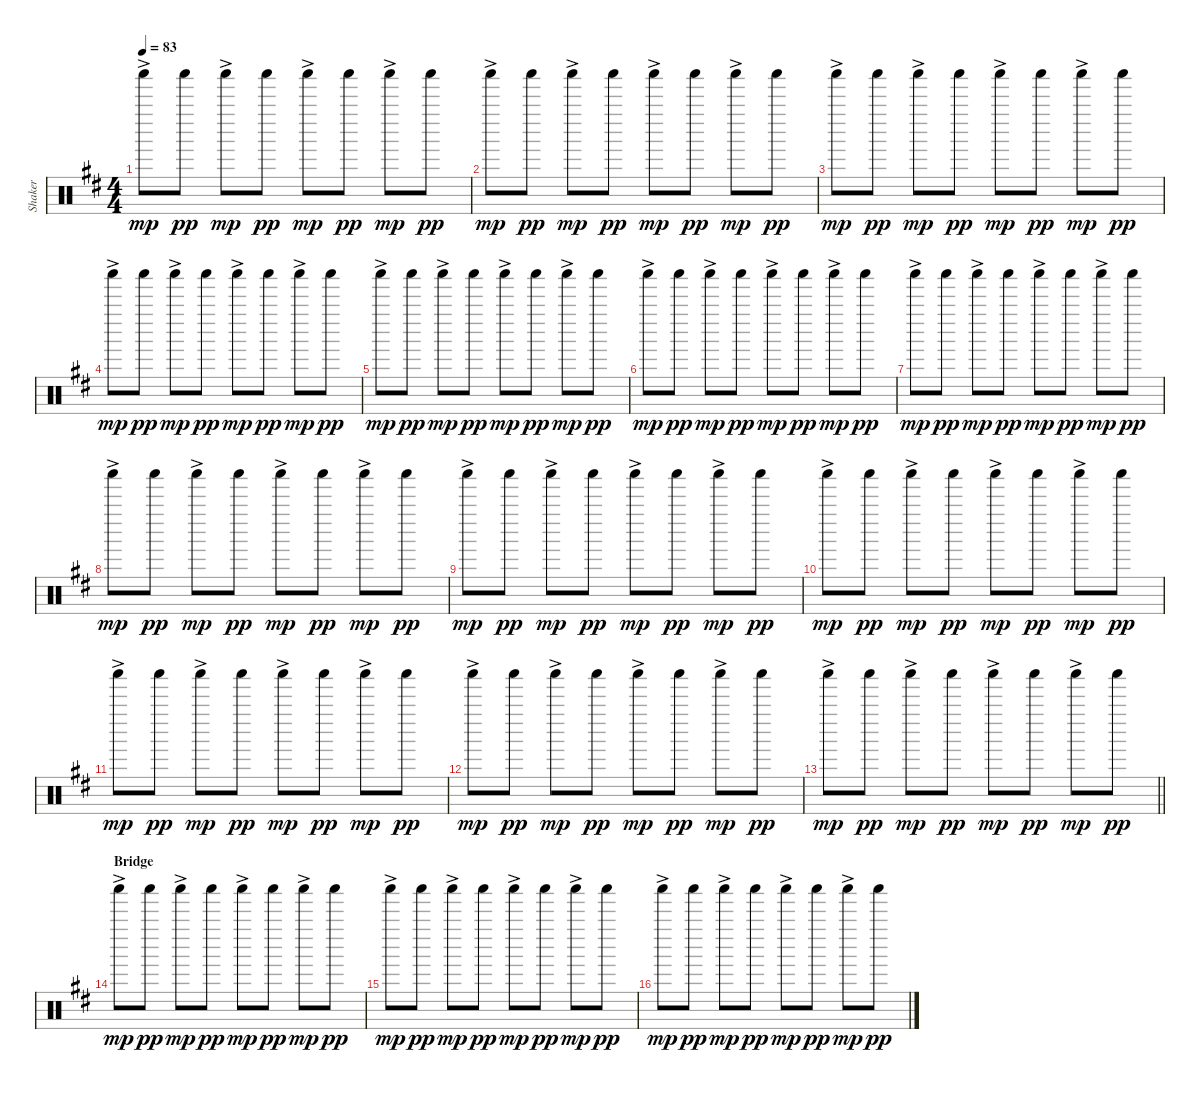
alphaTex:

\track ("Shaker" "Shaker") {instrument percussion}
\staff {score}
\articulation defaults
\ts (4 4)
\tempo 83
\clef neutral
\ks d "Shaker (hit)"{ac}.8{dy mp} "Shaker (hit)".8{dy pp} "Shaker (hit)"{ac}.8{dy mp} "Shaker (hit)".8{dy pp} "Shaker (hit)"{ac}.8{dy mp} "Shaker (hit)".8{dy pp} "Shaker (hit)"{ac}.8{dy mp} "Shaker (hit)".8{dy pp}
|
"Shaker (hit)"{ac}.8{dy mp} "Shaker (hit)".8{dy pp} "Shaker (hit)"{ac}.8{dy mp} "Shaker (hit)".8{dy pp} "Shaker (hit)"{ac}.8{dy mp} "Shaker (hit)".8{dy pp} "Shaker (hit)"{ac}.8{dy mp} "Shaker (hit)".8{dy pp} |
"Shaker (hit)"{ac}.8{dy mp} "Shaker (hit)".8{dy pp} "Shaker (hit)"{ac}.8{dy mp} "Shaker (hit)".8{dy pp} "Shaker (hit)"{ac}.8{dy mp} "Shaker (hit)".8{dy pp} "Shaker (hit)"{ac}.8{dy mp} "Shaker (hit)".8{dy pp} |
"Shaker (hit)"{ac}.8{dy mp} "Shaker (hit)".8{dy pp} "Shaker (hit)"{ac}.8{dy mp} "Shaker (hit)".8{dy pp} "Shaker (hit)"{ac}.8{dy mp} "Shaker (hit)".8{dy pp} "Shaker (hit)"{ac}.8{dy mp} "Shaker (hit)".8{dy pp} |
"Shaker (hit)"{ac}.8{dy mp} "Shaker (hit)".8{dy pp} "Shaker (hit)"{ac}.8{dy mp} "Shaker (hit)".8{dy pp} "Shaker (hit)"{ac}.8{dy mp} "Shaker (hit)".8{dy pp} "Shaker (hit)"{ac}.8{dy mp} "Shaker (hit)".8{dy pp} |
"Shaker (hit)"{ac}.8{dy mp} "Shaker (hit)".8{dy pp} "Shaker (hit)"{ac}.8{dy mp} "Shaker (hit)".8{dy pp} "Shaker (hit)"{ac}.8{dy mp} "Shaker (hit)".8{dy pp} "Shaker (hit)"{ac}.8{dy mp} "Shaker (hit)".8{dy pp} |
"Shaker (hit)"{ac}.8{dy mp} "Shaker (hit)".8{dy pp} "Shaker (hit)"{ac}.8{dy mp} "Shaker (hit)".8{dy pp} "Shaker (hit)"{ac}.8{dy mp} "Shaker (hit)".8{dy pp} "Shaker (hit)"{ac}.8{dy mp} "Shaker (hit)".8{dy pp} |
"Shaker (hit)"{ac}.8{dy mp} "Shaker (hit)".8{dy pp} "Shaker (hit)"{ac}.8{dy mp} "Shaker (hit)".8{dy pp} "Shaker (hit)"{ac}.8{dy mp} "Shaker (hit)".8{dy pp} "Shaker (hit)"{ac}.8{dy mp} "Shaker (hit)".8{dy pp} |
"Shaker (hit)"{ac}.8{dy mp} "Shaker (hit)".8{dy pp} "Shaker (hit)"{ac}.8{dy mp} "Shaker (hit)".8{dy pp} "Shaker (hit)"{ac}.8{dy mp} "Shaker (hit)".8{dy pp} "Shaker (hit)"{ac}.8{dy mp} "Shaker (hit)".8{dy pp} |
"Shaker (hit)"{ac}.8{dy mp} "Shaker (hit)".8{dy pp} "Shaker (hit)"{ac}.8{dy mp} "Shaker (hit)".8{dy pp} "Shaker (hit)"{ac}.8{dy mp} "Shaker (hit)".8{dy pp} "Shaker (hit)"{ac}.8{dy mp} "Shaker (hit)".8{dy pp} |
"Shaker (hit)"{ac}.8{dy mp} "Shaker (hit)".8{dy pp} "Shaker (hit)"{ac}.8{dy mp} "Shaker (hit)".8{dy pp} "Shaker (hit)"{ac}.8{dy mp} "Shaker (hit)".8{dy pp} "Shaker (hit)"{ac}.8{dy mp} "Shaker (hit)".8{dy pp} |
"Shaker (hit)"{ac}.8{dy mp} "Shaker (hit)".8{dy pp} "Shaker (hit)"{ac}.8{dy mp} "Shaker (hit)".8{dy pp} "Shaker (hit)"{ac}.8{dy mp} "Shaker (hit)".8{dy pp} "Shaker (hit)"{ac}.8{dy mp} "Shaker (hit)".8{dy pp} |
\barLineRight lightlight "Shaker (hit)"{ac}.8{dy mp} "Shaker (hit)".8{dy pp} "Shaker (hit)"{ac}.8{dy mp} "Shaker (hit)".8{dy pp} "Shaker (hit)"{ac}.8{dy mp} "Shaker (hit)".8{dy pp} "Shaker (hit)"{ac}.8{dy mp} "Shaker (hit)".8{dy pp}
|
\section ("" "Bridge")
"Shaker (hit)"{ac}.8{dy mp} "Shaker (hit)".8{dy pp} "Shaker (hit)"{ac}.8{dy mp} "Shaker (hit)".8{dy pp} "Shaker (hit)"{ac}.8{dy mp} "Shaker (hit)".8{dy pp} "Shaker (hit)"{ac}.8{dy mp} "Shaker (hit)".8{dy pp} |
"Shaker (hit)"{ac}.8{dy mp} "Shaker (hit)".8{dy pp} "Shaker (hit)"{ac}.8{dy mp} "Shaker (hit)".8{dy pp} "Shaker (hit)"{ac}.8{dy mp} "Shaker (hit)".8{dy pp} "Shaker (hit)"{ac}.8{dy mp} "Shaker (hit)".8{dy pp} |
"Shaker (hit)"{ac}.8{dy mp} "Shaker (hit)".8{dy pp} "Shaker (hit)"{ac}.8{dy mp} "Shaker (hit)".8{dy pp} "Shaker (hit)"{ac}.8{dy mp} "Shaker (hit)".8{dy pp} "Shaker (hit)"{ac}.8{dy mp} "Shaker (hit)".8{dy pp}
